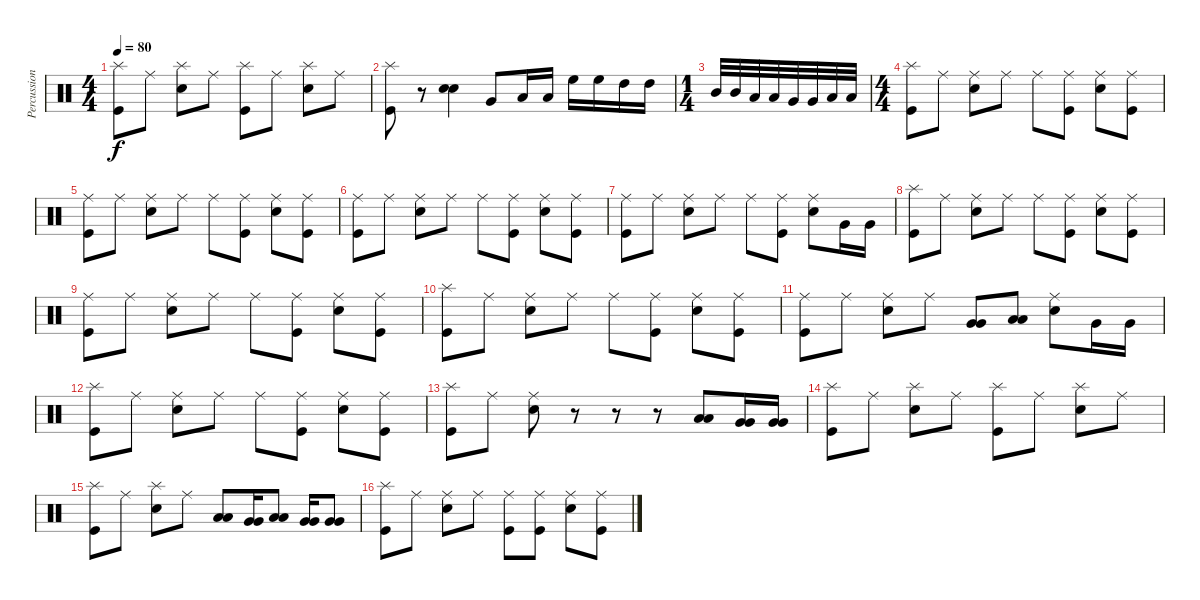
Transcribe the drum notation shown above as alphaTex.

\track ("Percussions" "Percussion") {instrument percussion}
\staff {score}
\articulation defaults
\ts (4 4)
\tempo 80
\clef neutral
\ks c
("Splash (hit)" "Kick (hit)").8{dy f} "Ride (middle)".8 ("Splash (hit)" "Snare (hit) 2").8 "Ride (middle)".8 ("Splash (hit)" "Kick (hit)").8 "Ride (middle)".8 ("Splash (hit)" "Snare (hit) 2").8 "Ride (middle)".8 |
("Splash (hit)" "Kick (hit)").8 r.8 ("Snare (hit) 2" "Snare (hit) 2").4 "Very Low Tom (hit)".8 "Low Tom (hit)".16 "Low Tom (hit)".16 "High Floor Tom (hit)".16 "High Floor Tom (hit)".16 "High Tom (hit)".16 "High Tom (hit)".16 |
\ts (1 4)
"Mid Tom (hit)".32 "Mid Tom (hit)".32 "Low Tom (hit)".32 "Low Tom (hit)".32 "Very Low Tom (hit)".32 "Very Low Tom (hit)".32 "Low Floor Tom (hit)".32 "Low Floor Tom (hit)".32 |
\ts (4 4)
("Splash (hit)" "Kick (hit)").8 "Ride (middle)".8 ("Ride (middle)" "Snare (hit) 2").8 "Ride (middle)".8 "Ride (middle)".8 ("Ride (middle)" "Kick (hit)").8 ("Ride (middle)" "Snare (hit) 2").8 ("Ride (middle)" "Kick (hit)").8 |
("Ride (middle)" "Kick (hit)").8 "Ride (middle)".8 ("Ride (middle)" "Snare (hit) 2").8 "Ride (middle)".8 "Ride (middle)".8 ("Ride (middle)" "Kick (hit)").8 ("Ride (middle)" "Snare (hit) 2").8 ("Ride (middle)" "Kick (hit)").8 |
("Ride (middle)" "Kick (hit)").8 "Ride (middle)".8 ("Ride (middle)" "Snare (hit) 2").8 "Ride (middle)".8 "Ride (middle)".8 ("Ride (middle)" "Kick (hit)").8 ("Ride (middle)" "Snare (hit) 2").8 ("Ride (middle)" "Kick (hit)").8 |
("Ride (middle)" "Kick (hit)").8 "Ride (middle)".8 ("Ride (middle)" "Snare (hit) 2").8 "Ride (middle)".8 "Ride (middle)".8 ("Ride (middle)" "Kick (hit)").8 ("Ride (middle)" "Snare (hit) 2").8 "Very Low Tom (hit)".16 "Very Low Tom (hit)".16 |
("Splash (hit)" "Kick (hit)").8 "Ride (middle)".8 ("Ride (middle)" "Snare (hit) 2").8 "Ride (middle)".8 "Ride (middle)".8 ("Ride (middle)" "Kick (hit)").8 ("Ride (middle)" "Snare (hit) 2").8 ("Ride (middle)" "Kick (hit)").8 |
("Ride (middle)" "Kick (hit)").8 "Ride (middle)".8 ("Ride (middle)" "Snare (hit) 2").8 "Ride (middle)".8 "Ride (middle)".8 ("Ride (middle)" "Kick (hit)").8 ("Ride (middle)" "Snare (hit) 2").8 ("Ride (middle)" "Kick (hit)").8 |
("Splash (hit)" "Kick (hit)").8 "Ride (middle)".8 ("Ride (middle)" "Snare (hit) 2").8 "Ride (middle)".8 "Ride (middle)".8 ("Ride (middle)" "Kick (hit)").8 ("Ride (middle)" "Snare (hit) 2").8 ("Ride (middle)" "Kick (hit)").8 |
("Ride (middle)" "Kick (hit)").8 "Ride (middle)".8 ("Ride (middle)" "Snare (hit) 2").8 "Ride (middle)".8 ("Very Low Tom (hit)" "Very Low Tom (hit)").8 ("Low Tom (hit)" "Low Tom (hit)").8 ("Ride (middle)" "Snare (hit) 2").8 "Very Low Tom (hit)".16 "Very Low Tom (hit)".16 |
("Splash (hit)" "Kick (hit)").8 "Ride (middle)".8 ("Ride (middle)" "Snare (hit) 2").8 "Ride (middle)".8 "Ride (middle)".8 ("Ride (middle)" "Kick (hit)").8 ("Ride (middle)" "Snare (hit) 2").8 ("Ride (middle)" "Kick (hit)").8 |
("Splash (hit)" "Kick (hit)").8 "Ride (middle)".8 ("Ride (middle)" "Snare (hit) 2").8 r.8 r.8 r.8 ("Low Tom (hit)" "Low Tom (hit)").8 ("Very Low Tom (hit)" "Very Low Tom (hit)").16 ("Very Low Tom (hit)" "Very Low Tom (hit)").16 |
("Splash (hit)" "Kick (hit)").8 "Ride (middle)".8 ("Splash (hit)" "Snare (hit) 2").8 "Ride (middle)".8 ("Splash (hit)" "Kick (hit)").8 "Ride (middle)".8 ("Splash (hit)" "Snare (hit) 2").8 "Ride (middle)".8 |
("Splash (hit)" "Kick (hit)").8 "Ride (middle)".8 ("Splash (hit)" "Snare (hit) 2").8 "Ride (middle)".8 ("Low Tom (hit)" "Low Tom (hit)").8 ("Very Low Tom (hit)" "Very Low Tom (hit)").16 ("Low Tom (hit)" "Low Tom (hit)").8 ("Very Low Tom (hit)" "Very Low Tom (hit)").16 ("Very Low Tom (hit)" "Very Low Tom (hit)").8 |
("Splash (hit)" "Kick (hit)").8 "Ride (middle)".8 ("Ride (middle)" "Snare (hit) 2").8 "Ride (middle)".8 ("Ride (middle)" "Kick (hit)").8 ("Ride (middle)" "Kick (hit)").8 ("Ride (middle)" "Snare (hit) 2").8 ("Ride (middle)" "Kick (hit)").8
